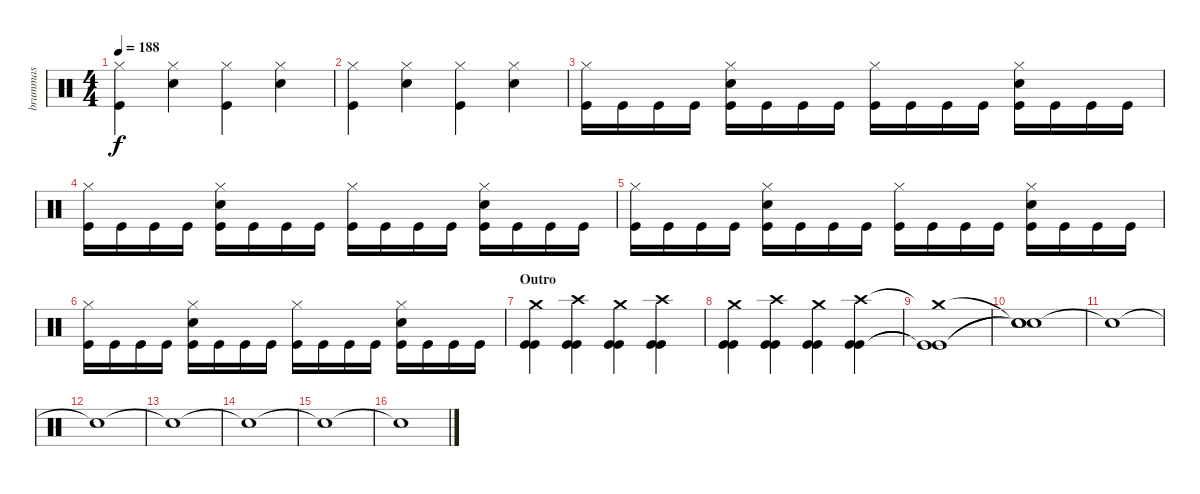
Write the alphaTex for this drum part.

\track ("brummas" "brummas") {instrument percussion}
\staff {score}
\articulation defaults
\ts (4 4)
\tempo 188
\clef neutral
\ks c
("Hi-Hat (closed)" "Kick (hit)").4{dy f} ("Hi-Hat (closed)" "Snare (hit) 2").4 ("Hi-Hat (closed)" "Kick (hit)").4 ("Hi-Hat (closed)" "Snare (hit) 2").4 |
("Hi-Hat (closed)" "Kick (hit)").4 ("Hi-Hat (closed)" "Snare (hit) 2").4 ("Hi-Hat (closed)" "Kick (hit)").4 ("Hi-Hat (closed)" "Snare (hit) 2").4 |
("Hi-Hat (closed)" "Kick (hit)").16 "Kick (hit)".16 "Kick (hit)".16 "Kick (hit)".16 ("Hi-Hat (closed)" "Snare (hit) 2" "Kick (hit)").16 "Kick (hit)".16 "Kick (hit)".16 "Kick (hit)".16 ("Hi-Hat (closed)" "Kick (hit)").16 "Kick (hit)".16 "Kick (hit)".16 "Kick (hit)".16 ("Hi-Hat (closed)" "Snare (hit) 2" "Kick (hit)").16 "Kick (hit)".16 "Kick (hit)".16 "Kick (hit)".16 |
("Hi-Hat (closed)" "Kick (hit)").16 "Kick (hit)".16 "Kick (hit)".16 "Kick (hit)".16 ("Hi-Hat (closed)" "Snare (hit) 2" "Kick (hit)").16 "Kick (hit)".16 "Kick (hit)".16 "Kick (hit)".16 ("Hi-Hat (closed)" "Kick (hit)").16 "Kick (hit)".16 "Kick (hit)".16 "Kick (hit)".16 ("Hi-Hat (closed)" "Snare (hit) 2" "Kick (hit)").16 "Kick (hit)".16 "Kick (hit)".16 "Kick (hit)".16 |
("Hi-Hat (closed)" "Kick (hit)").16 "Kick (hit)".16 "Kick (hit)".16 "Kick (hit)".16 ("Hi-Hat (closed)" "Snare (hit) 2" "Kick (hit)").16 "Kick (hit)".16 "Kick (hit)".16 "Kick (hit)".16 ("Hi-Hat (closed)" "Kick (hit)").16 "Kick (hit)".16 "Kick (hit)".16 "Kick (hit)".16 ("Hi-Hat (closed)" "Snare (hit) 2" "Kick (hit)").16 "Kick (hit)".16 "Kick (hit)".16 "Kick (hit)".16 |
("Hi-Hat (closed)" "Kick (hit)").16 "Kick (hit)".16 "Kick (hit)".16 "Kick (hit)".16 ("Hi-Hat (closed)" "Snare (hit) 2" "Kick (hit)").16 "Kick (hit)".16 "Kick (hit)".16 "Kick (hit)".16 ("Hi-Hat (closed)" "Kick (hit)").16 "Kick (hit)".16 "Kick (hit)".16 "Kick (hit)".16 ("Hi-Hat (closed)" "Snare (hit) 2" "Kick (hit)").16 "Kick (hit)".16 "Kick (hit)".16 "Kick (hit)".16 |
\section ("" "Outro")
("Crash medium (hit)" "Kick (hit)" "Kick (hit)").4 ("Crash high (hit)" "Kick (hit)" "Kick (hit)").4 ("Crash medium (hit)" "Kick (hit)" "Kick (hit)").4 ("Crash high (hit)" "Kick (hit)" "Kick (hit)").4 |
("Crash medium (hit)" "Kick (hit)" "Kick (hit)").4 ("Crash high (hit)" "Kick (hit)" "Kick (hit)").4 ("Crash medium (hit)" "Kick (hit)" "Kick (hit)").4 ("Crash high (hit)" "Kick (hit)" "Kick (hit)").4 |
("Crash medium (hit)"{t} "Kick (hit)"{t} "Kick (hit)"{t}).1 |
("Snare (hit)"{t} "Snare (hit)"{t} "Snare (hit)"{t}).1 |
"Snare (hit)"{t}.1 |
"Snare (hit)"{t}.1 |
"Snare (hit)"{t}.1 |
"Snare (hit)"{t}.1 |
"Snare (hit)"{t}.1 |
"Snare (hit)"{t}.1
